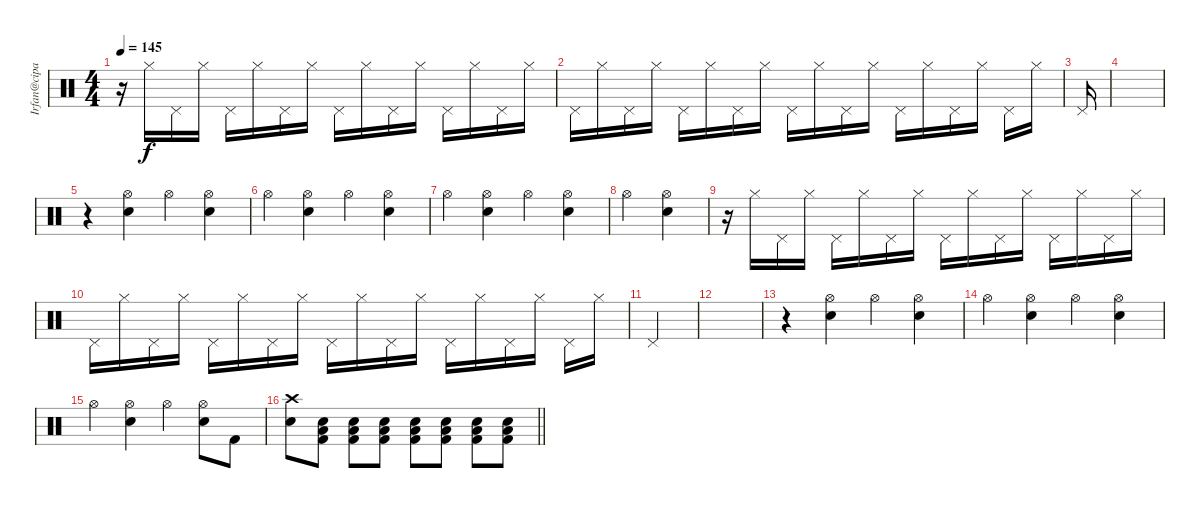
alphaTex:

\track ("Irfan@cipan 2" "Irfan@cipa") {instrument percussion}
\staff {score}
\articulation defaults
\ts (4 4)
\tempo 145
\clef neutral
\ks c
r.16{dy f} "Hi-Hat (closed)".16 "Pedal Hi-Hat (hit)".16 "Hi-Hat (closed)".16 "Pedal Hi-Hat (hit)".16 "Hi-Hat (closed)".16 "Pedal Hi-Hat (hit)".16 "Hi-Hat (closed)".16 "Pedal Hi-Hat (hit)".16 "Hi-Hat (closed)".16 "Pedal Hi-Hat (hit)".16 "Hi-Hat (closed)".16 "Pedal Hi-Hat (hit)".16 "Hi-Hat (closed)".16 "Pedal Hi-Hat (hit)".16 "Hi-Hat (closed)".16 |
"Pedal Hi-Hat (hit)".16 "Hi-Hat (closed)".16 "Pedal Hi-Hat (hit)".16 "Hi-Hat (closed)".16 "Pedal Hi-Hat (hit)".16 "Hi-Hat (closed)".16 "Pedal Hi-Hat (hit)".16 "Hi-Hat (closed)".16 "Pedal Hi-Hat (hit)".16 "Hi-Hat (closed)".16 "Pedal Hi-Hat (hit)".16 "Hi-Hat (closed)".16 "Pedal Hi-Hat (hit)".16 "Hi-Hat (closed)".16 "Pedal Hi-Hat (hit)".16 "Hi-Hat (closed)".16 "Pedal Hi-Hat (hit)".16 "Hi-Hat (closed)".16 |
"Pedal Hi-Hat (hit)".16 |
|
r.4 ("Hi-Hat (open)" "Electric Snare (hit)").4 "Hi-Hat (open)".4 ("Hi-Hat (open)" "Electric Snare (hit)").4 |
"Hi-Hat (open)".4 ("Hi-Hat (open)" "Electric Snare (hit)").4 "Hi-Hat (open)".4 ("Hi-Hat (open)" "Electric Snare (hit)").4 |
"Hi-Hat (open)".4 ("Hi-Hat (open)" "Electric Snare (hit)").4 "Hi-Hat (open)".4 ("Hi-Hat (open)" "Electric Snare (hit)").4 |
"Hi-Hat (open)".4 ("Hi-Hat (open)" "Electric Snare (hit)").4 |
r.16 "Hi-Hat (closed)".16 "Pedal Hi-Hat (hit)".16 "Hi-Hat (closed)".16 "Pedal Hi-Hat (hit)".16 "Hi-Hat (closed)".16 "Pedal Hi-Hat (hit)".16 "Hi-Hat (closed)".16 "Pedal Hi-Hat (hit)".16 "Hi-Hat (closed)".16 "Pedal Hi-Hat (hit)".16 "Hi-Hat (closed)".16 "Pedal Hi-Hat (hit)".16 "Hi-Hat (closed)".16 "Pedal Hi-Hat (hit)".16 "Hi-Hat (closed)".16 |
"Pedal Hi-Hat (hit)".16 "Hi-Hat (closed)".16 "Pedal Hi-Hat (hit)".16 "Hi-Hat (closed)".16 "Pedal Hi-Hat (hit)".16 "Hi-Hat (closed)".16 "Pedal Hi-Hat (hit)".16 "Hi-Hat (closed)".16 "Pedal Hi-Hat (hit)".16 "Hi-Hat (closed)".16 "Pedal Hi-Hat (hit)".16 "Hi-Hat (closed)".16 "Pedal Hi-Hat (hit)".16 "Hi-Hat (closed)".16 "Pedal Hi-Hat (hit)".16 "Hi-Hat (closed)".16 "Pedal Hi-Hat (hit)".16 "Hi-Hat (closed)".16 |
"Pedal Hi-Hat (hit)".4 |
|
r.4 ("Hi-Hat (open)" "Electric Snare (hit)").4 "Hi-Hat (open)".4 ("Hi-Hat (open)" "Electric Snare (hit)").4 |
"Hi-Hat (open)".4 ("Hi-Hat (open)" "Electric Snare (hit)").4 "Hi-Hat (open)".4 ("Hi-Hat (open)" "Electric Snare (hit)").4 |
"Hi-Hat (open)".4 ("Hi-Hat (open)" "Electric Snare (hit)").4 "Hi-Hat (open)".4 ("Hi-Hat (open)" "Electric Snare (hit)").8 "Kick (hit) 2".8 |
\barLineRight lightlight
("Crash high (hit)" "Electric Snare (hit)").8 ("Kick (hit) 2" "Low Floor Tom (hit)" "Electric Snare (hit)").8 ("Kick (hit) 2" "Low Floor Tom (hit)" "Electric Snare (hit)").8 ("Kick (hit) 2" "Low Floor Tom (hit)" "Electric Snare (hit)").8 ("Kick (hit) 2" "Low Floor Tom (hit)" "Electric Snare (hit)").8 ("Kick (hit) 2" "Low Floor Tom (hit)" "Electric Snare (hit)").8 ("Kick (hit) 2" "Low Floor Tom (hit)" "Electric Snare (hit)").8 ("Kick (hit) 2" "Low Floor Tom (hit)" "Electric Snare (hit)").8
